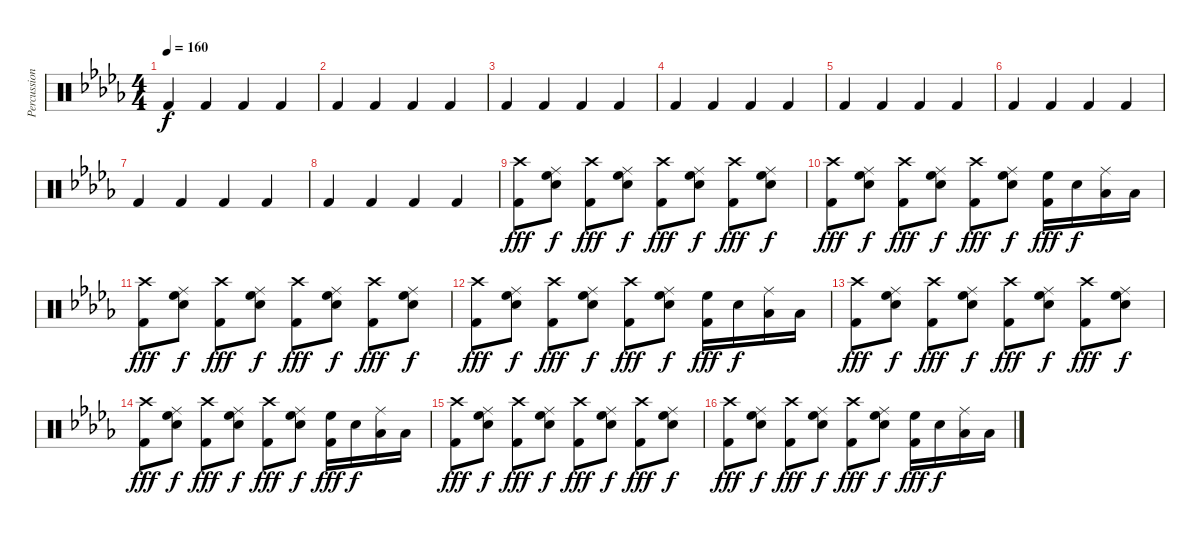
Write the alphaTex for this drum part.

\track ("Percussions" "Percussion") {instrument percussion}
\staff {score}
\articulation defaults
\ts (4 4)
\tempo 160
\clef neutral
\ks db "Kick (hit) 2".4{dy f} "Kick (hit) 2".4 "Kick (hit) 2".4 "Kick (hit) 2".4
|
"Kick (hit) 2".4 "Kick (hit) 2".4 "Kick (hit) 2".4 "Kick (hit) 2".4 |
"Kick (hit) 2".4 "Kick (hit) 2".4 "Kick (hit) 2".4 "Kick (hit) 2".4 |
"Kick (hit) 2".4 "Kick (hit) 2".4 "Kick (hit) 2".4 "Kick (hit) 2".4 |
"Kick (hit) 2".4 "Kick (hit) 2".4 "Kick (hit) 2".4 "Kick (hit) 2".4 |
"Kick (hit) 2".4 "Kick (hit) 2".4 "Kick (hit) 2".4 "Kick (hit) 2".4 |
"Kick (hit) 2".4 "Kick (hit) 2".4 "Kick (hit) 2".4 "Kick (hit) 2".4 |
"Kick (hit) 2".4 "Kick (hit) 2".4 "Kick (hit) 2".4 "Kick (hit) 2".4 |
("Crash high (hit)" "Kick (hit) 2").8{dy fff} ("High Floor Tom (hit)" "Ride (middle)" "Snare (hit) 2").8{dy f} ("Crash high (hit)" "Kick (hit) 2").8{dy fff} ("High Floor Tom (hit)" "Ride (middle)" "Snare (hit) 2").8{dy f} ("Crash high (hit)" "Kick (hit) 2").8{dy fff} ("High Floor Tom (hit)" "Ride (middle)" "Snare (hit) 2").8{dy f} ("Crash high (hit)" "Kick (hit) 2").8{dy fff} ("High Floor Tom (hit)" "Ride (middle)" "Snare (hit) 2").8{dy f} |
("Crash high (hit)" "Kick (hit) 2").8{dy fff} ("High Floor Tom (hit)" "Ride (middle)" "Snare (hit) 2").8{dy f} ("Crash high (hit)" "Kick (hit) 2").8{dy fff} ("High Floor Tom (hit)" "Ride (middle)" "Snare (hit) 2").8{dy f} ("Crash high (hit)" "Kick (hit) 2").8{dy fff} ("High Floor Tom (hit)" "Ride (middle)" "Snare (hit) 2").8{dy f} ("High Floor Tom (hit)" "Kick (hit) 2").16{dy fff} "Snare (hit) 2".16{dy f} ("Low Tom (hit)" "Ride (middle)").16 "Low Floor Tom (hit)".16 |
("Crash high (hit)" "Kick (hit) 2").8{dy fff} ("High Floor Tom (hit)" "Ride (middle)" "Snare (hit) 2").8{dy f} ("Crash high (hit)" "Kick (hit) 2").8{dy fff} ("High Floor Tom (hit)" "Ride (middle)" "Snare (hit) 2").8{dy f} ("Crash high (hit)" "Kick (hit) 2").8{dy fff} ("High Floor Tom (hit)" "Ride (middle)" "Snare (hit) 2").8{dy f} ("Crash high (hit)" "Kick (hit) 2").8{dy fff} ("High Floor Tom (hit)" "Ride (middle)" "Snare (hit) 2").8{dy f} |
("Crash high (hit)" "Kick (hit) 2").8{dy fff} ("High Floor Tom (hit)" "Ride (middle)" "Snare (hit) 2").8{dy f} ("Crash high (hit)" "Kick (hit) 2").8{dy fff} ("High Floor Tom (hit)" "Ride (middle)" "Snare (hit) 2").8{dy f} ("Crash high (hit)" "Kick (hit) 2").8{dy fff} ("High Floor Tom (hit)" "Ride (middle)" "Snare (hit) 2").8{dy f} ("High Floor Tom (hit)" "Kick (hit) 2").16{dy fff} "Snare (hit) 2".16{dy f} ("Low Tom (hit)" "Ride (middle)").16 "Low Floor Tom (hit)".16 |
("Crash high (hit)" "Kick (hit) 2").8{dy fff} ("High Floor Tom (hit)" "Ride (middle)" "Snare (hit) 2").8{dy f} ("Crash high (hit)" "Kick (hit) 2").8{dy fff} ("High Floor Tom (hit)" "Ride (middle)" "Snare (hit) 2").8{dy f} ("Crash high (hit)" "Kick (hit) 2").8{dy fff} ("High Floor Tom (hit)" "Ride (middle)" "Snare (hit) 2").8{dy f} ("Crash high (hit)" "Kick (hit) 2").8{dy fff} ("High Floor Tom (hit)" "Ride (middle)" "Snare (hit) 2").8{dy f} |
("Crash high (hit)" "Kick (hit) 2").8{dy fff} ("High Floor Tom (hit)" "Ride (middle)" "Snare (hit) 2").8{dy f} ("Crash high (hit)" "Kick (hit) 2").8{dy fff} ("High Floor Tom (hit)" "Ride (middle)" "Snare (hit) 2").8{dy f} ("Crash high (hit)" "Kick (hit) 2").8{dy fff} ("High Floor Tom (hit)" "Ride (middle)" "Snare (hit) 2").8{dy f} ("High Floor Tom (hit)" "Kick (hit) 2").16{dy fff} "Snare (hit) 2".16{dy f} ("Low Tom (hit)" "Ride (middle)").16 "Low Floor Tom (hit)".16 |
("Crash high (hit)" "Kick (hit) 2").8{dy fff} ("High Floor Tom (hit)" "Ride (middle)" "Snare (hit) 2").8{dy f} ("Crash high (hit)" "Kick (hit) 2").8{dy fff} ("High Floor Tom (hit)" "Ride (middle)" "Snare (hit) 2").8{dy f} ("Crash high (hit)" "Kick (hit) 2").8{dy fff} ("High Floor Tom (hit)" "Ride (middle)" "Snare (hit) 2").8{dy f} ("Crash high (hit)" "Kick (hit) 2").8{dy fff} ("High Floor Tom (hit)" "Ride (middle)" "Snare (hit) 2").8{dy f} |
("Crash high (hit)" "Kick (hit) 2").8{dy fff} ("High Floor Tom (hit)" "Ride (middle)" "Snare (hit) 2").8{dy f} ("Crash high (hit)" "Kick (hit) 2").8{dy fff} ("High Floor Tom (hit)" "Ride (middle)" "Snare (hit) 2").8{dy f} ("Crash high (hit)" "Kick (hit) 2").8{dy fff} ("High Floor Tom (hit)" "Ride (middle)" "Snare (hit) 2").8{dy f} ("High Floor Tom (hit)" "Kick (hit) 2").16{dy fff} "Snare (hit) 2".16{dy f} ("Low Tom (hit)" "Ride (middle)").16 "Low Floor Tom (hit)".16
